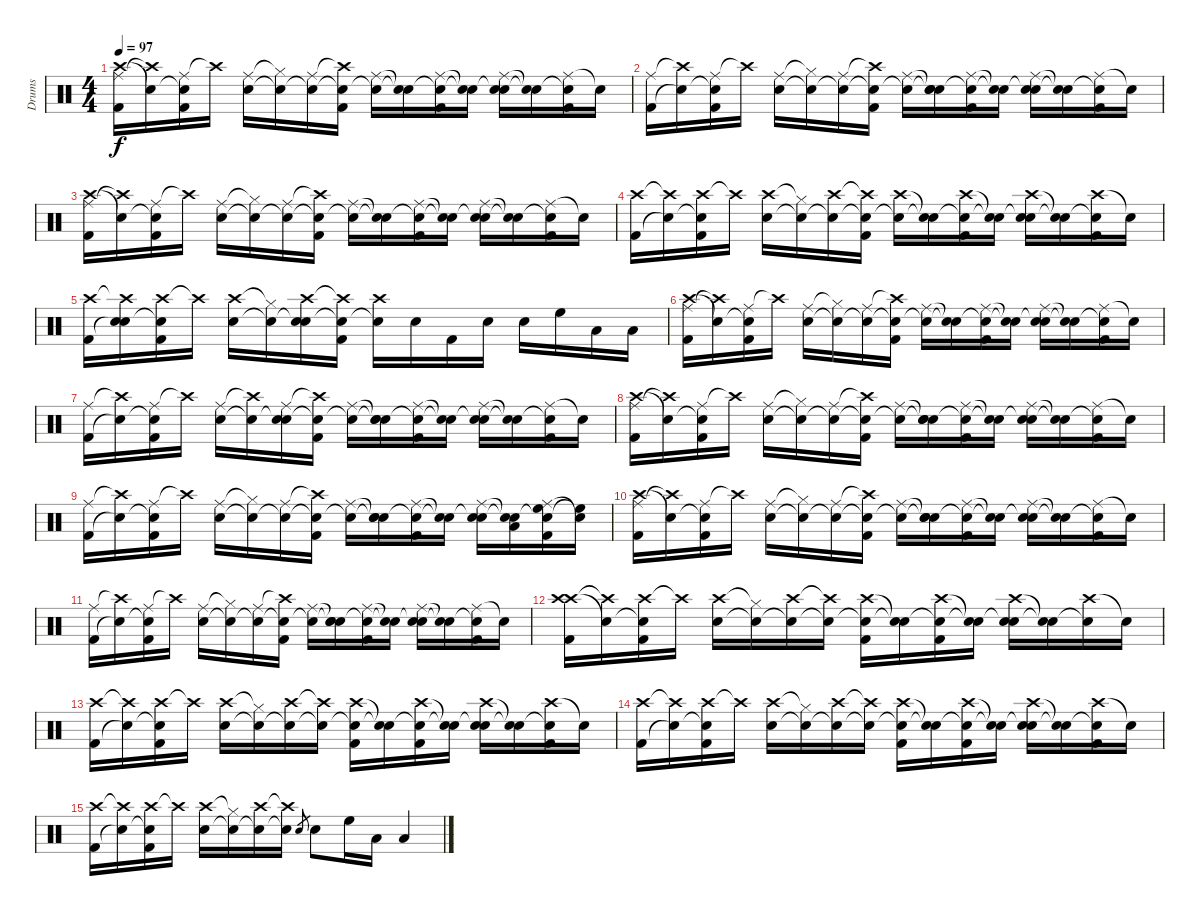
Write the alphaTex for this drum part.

\track ("Drums" "Drums") {instrument percussion}
\staff {score}
\articulation defaults
\ts (4 4)
\tempo 97
\clef neutral
\ks aminor
("Ride (middle)" "Crash high (hit)" "Kick (hit) 2").16{dy f} ("Crash high (hit)"{t} "Snare (hit)"{t}).16 ("Ride (middle)" "Snare (hit)"{t} "Kick (hit) 2").16 "Crash high (hit)"{t}.16 ("Ride (middle)" "Snare (hit) 2").16 ("Hi-Hat (closed)"{t} "Snare (hit)"{t}).16 ("Ride (middle)" "Snare (hit)"{t}).16 ("Crash high (hit)"{t} "Snare (hit)"{t} "Kick (hit) 2").16 ("Ride (middle)" "Snare (hit)"{t}).16 ("Snare (hit)"{t} "Snare (hit)"{t}).16 ("Ride (middle)" "Snare (hit)"{t} "Kick (hit) 2").16 ("Snare (hit)"{t} "Snare (hit)"{t}).16 ("Ride (middle)" "Snare (hit)"{t} "Snare (hit) 2").16 ("Snare (hit)"{t} "Snare (hit)"{t}).16 ("Ride (middle)" "Snare (hit)"{t} "Kick (hit) 2").16 "Snare (hit)"{t}.16 |
("Ride (middle)" "Kick (hit) 2").16 ("Crash high (hit)"{t} "Snare (hit)"{t}).16 ("Ride (middle)" "Snare (hit)"{t} "Kick (hit) 2").16 "Crash high (hit)"{t}.16 ("Ride (middle)" "Snare (hit) 2").16 ("Hi-Hat (closed)"{t} "Snare (hit)"{t}).16 ("Ride (middle)" "Snare (hit)"{t}).16 ("Crash high (hit)"{t} "Snare (hit)"{t} "Kick (hit) 2").16 ("Ride (middle)" "Snare (hit)"{t}).16 ("Snare (hit)"{t} "Snare (hit)"{t} "Snare (hit) 2").16 ("Ride (middle)" "Snare (hit)"{t} "Kick (hit) 2").16 ("Snare (hit)"{t} "Snare (hit)"{t}).16 ("Ride (middle)" "Snare (hit)"{t} "Snare (hit) 2").16 ("Snare (hit)"{t} "Snare (hit)"{t}).16 ("Ride (middle)" "Snare (hit)"{t} "Kick (hit) 2").16 "Snare (hit)"{t}.16 |
("Ride (middle)" "Crash high (hit)" "Kick (hit) 2").16 ("Crash high (hit)"{t} "Snare (hit)"{t}).16 ("Ride (middle)" "Snare (hit)"{t} "Kick (hit) 2").16 "Crash high (hit)"{t}.16 ("Ride (middle)" "Snare (hit) 2").16 ("Hi-Hat (closed)"{t} "Snare (hit)"{t}).16 ("Ride (middle)" "Snare (hit)"{t}).16 ("Crash high (hit)"{t} "Snare (hit)"{t} "Kick (hit) 2").16 ("Ride (middle)" "Snare (hit)"{t}).16 ("Snare (hit)"{t} "Snare (hit)"{t}).16 ("Ride (middle)" "Snare (hit)"{t} "Kick (hit) 2").16 ("Snare (hit)"{t} "Snare (hit)"{t}).16 ("Ride (middle)" "Snare (hit)"{t} "Snare (hit) 2").16 ("Snare (hit)"{t} "Snare (hit)"{t}).16 ("Ride (middle)" "Snare (hit)"{t} "Kick (hit) 2").16 "Snare (hit)"{t}.16 |
("Crash high (hit)" "Kick (hit) 2").16 ("Crash high (hit)"{t} "Snare (hit)"{t}).16 ("Crash high (hit)" "Snare (hit)"{t} "Kick (hit) 2").16 "Crash high (hit)"{t}.16 ("Crash high (hit)" "Snare (hit) 2").16 ("Hi-Hat (closed)"{t} "Snare (hit)"{t}).16 ("Crash high (hit)" "Snare (hit)"{t}).16 ("Crash high (hit)"{t} "Snare (hit)"{t} "Kick (hit) 2").16 ("Crash high (hit)" "Snare (hit)"{t}).16 ("Snare (hit)"{t} "Snare (hit)"{t}).16 ("Crash high (hit)" "Snare (hit)"{t} "Kick (hit) 2").16 ("Snare (hit)"{t} "Snare (hit)"{t}).16 ("Crash high (hit)" "Snare (hit)"{t} "Snare (hit) 2").16 ("Snare (hit)"{t} "Snare (hit)"{t}).16 ("Crash high (hit)" "Snare (hit)"{t} "Kick (hit) 2").16 "Snare (hit)"{t}.16 |
("Crash high (hit)" "Kick (hit) 2").16 ("Crash high (hit)"{t} "Snare (hit)"{t} "Snare (hit) 2").16 ("Crash high (hit)" "Snare (hit)"{t} "Kick (hit) 2").16 "Crash high (hit)"{t}.16 ("Crash high (hit)" "Snare (hit) 2").16 ("Hi-Hat (closed)"{t} "Snare (hit)"{t}).16 ("Crash high (hit)" "Snare (hit)"{t} "Snare (hit) 2").16 ("Crash high (hit)"{t} "Snare (hit)"{t} "Kick (hit) 2").16 ("Crash high (hit)" "Snare (hit)"{t}).16 "Snare (hit) 2".16 "Kick (hit) 2".16 "Snare (hit) 2".16 "Snare (hit) 2".16 "High Floor Tom (hit)".16 "Low Floor Tom (hit)".16 "Low Floor Tom (hit)".16 |
("Ride (middle)" "Crash high (hit)" "Kick (hit) 2").16 ("Crash high (hit)"{t} "Snare (hit)"{t}).16 ("Ride (middle)" "Snare (hit)"{t} "Kick (hit) 2").16 "Crash high (hit)"{t}.16 ("Ride (middle)" "Snare (hit) 2").16 ("Hi-Hat (closed)"{t} "Snare (hit)"{t}).16 ("Ride (middle)" "Snare (hit)"{t}).16 ("Crash high (hit)"{t} "Snare (hit)"{t} "Kick (hit) 2").16 ("Ride (middle)" "Snare (hit)"{t}).16 ("Snare (hit)"{t} "Snare (hit)"{t}).16 ("Ride (middle)" "Snare (hit)"{t} "Kick (hit) 2").16 ("Snare (hit)"{t} "Snare (hit)"{t}).16 ("Ride (middle)" "Snare (hit)"{t} "Snare (hit) 2").16 ("Snare (hit)"{t} "Snare (hit)"{t}).16 ("Ride (middle)" "Snare (hit)"{t} "Kick (hit) 2").16 "Snare (hit)"{t}.16 |
("Ride (middle)" "Kick (hit) 2").16 ("Crash high (hit)"{t} "Snare (hit)"{t}).16 ("Ride (middle)" "Snare (hit)"{t} "Kick (hit) 2").16 "Crash high (hit)"{t}.16 ("Ride (middle)" "Snare (hit) 2").16 ("Crash high (hit)"{t} "Snare (hit)"{t}).16 ("Ride (middle)" "Snare (hit)"{t} "Snare (hit) 2").16 ("Crash high (hit)"{t} "Snare (hit)"{t} "Kick (hit) 2").16 ("Ride (middle)" "Snare (hit)"{t}).16 ("Snare (hit)"{t} "Snare (hit)"{t} "Snare (hit) 2").16 ("Ride (middle)" "Snare (hit)"{t} "Kick (hit) 2").16 ("Snare (hit)"{t} "Snare (hit)"{t}).16 ("Ride (middle)" "Snare (hit)"{t} "Snare (hit) 2").16 ("Snare (hit)"{t} "Snare (hit)"{t}).16 ("Ride (middle)" "Snare (hit)"{t} "Kick (hit) 2").16 "Snare (hit)"{t}.16 |
("Ride (middle)" "Crash high (hit)" "Kick (hit) 2").16 ("Crash high (hit)"{t} "Snare (hit)"{t}).16 ("Ride (middle)" "Snare (hit)"{t} "Kick (hit) 2").16 "Crash high (hit)"{t}.16 ("Ride (middle)" "Snare (hit) 2").16 ("Hi-Hat (closed)"{t} "Snare (hit)"{t}).16 ("Ride (middle)" "Snare (hit)"{t}).16 ("Crash high (hit)"{t} "Snare (hit)"{t} "Kick (hit) 2").16 ("Ride (middle)" "Snare (hit)"{t}).16 ("Snare (hit)"{t} "Snare (hit)"{t} "Snare (hit) 2").16 ("Ride (middle)" "Snare (hit)"{t} "Kick (hit) 2").16 ("Snare (hit)"{t} "Snare (hit)"{t}).16 ("Ride (middle)" "Snare (hit)"{t} "Snare (hit) 2").16 ("Snare (hit)"{t} "Snare (hit)"{t}).16 ("Ride (middle)" "Snare (hit)"{t} "Kick (hit) 2").16 "Snare (hit)"{t}.16 |
("Ride (middle)" "Kick (hit) 2").16 ("Crash high (hit)"{t} "Snare (hit)"{t}).16 ("Ride (middle)" "Snare (hit)"{t} "Kick (hit) 2").16 "Crash high (hit)"{t}.16 ("Ride (middle)" "Snare (hit) 2").16 ("Hi-Hat (closed)"{t} "Snare (hit)"{t}).16 ("Ride (middle)" "Snare (hit)"{t}).16 ("Crash high (hit)"{t} "Snare (hit)"{t} "Kick (hit) 2").16 ("Ride (middle)" "Snare (hit)"{t}).16 ("Snare (hit)"{t} "Snare (hit)"{t} "Snare (hit) 2").16 ("Ride (middle)" "Snare (hit)"{t} "Kick (hit) 2").16 ("Snare (hit)"{t} "Snare (hit)"{t}).16 ("Ride (middle)" "Snare (hit)"{t} "Snare (hit) 2").16 ("Snare (hit)"{t} "Snare (hit)"{t} "Low Floor Tom (hit)").16 ("Ride (middle)" "Snare (hit)"{t} "High Floor Tom (hit)" "Kick (hit) 2").16 ("Snare (hit)"{t} "High Floor Tom (hit)"{t}).16 |
("Ride (middle)" "Crash high (hit)" "Kick (hit) 2").16 ("Crash high (hit)"{t} "Snare (hit)"{t}).16 ("Ride (middle)" "Snare (hit)"{t} "Kick (hit) 2").16 "Crash high (hit)"{t}.16 ("Ride (middle)" "Snare (hit) 2").16 ("Hi-Hat (closed)"{t} "Snare (hit)"{t}).16 ("Ride (middle)" "Snare (hit)"{t}).16 ("Crash high (hit)"{t} "Snare (hit)"{t} "Kick (hit) 2").16 ("Ride (middle)" "Snare (hit)"{t}).16 ("Snare (hit)"{t} "Snare (hit)"{t} "Snare (hit) 2").16 ("Ride (middle)" "Snare (hit)"{t} "Kick (hit) 2").16 ("Snare (hit)"{t} "Snare (hit)"{t}).16 ("Ride (middle)" "Snare (hit)"{t} "Snare (hit) 2").16 ("Snare (hit)"{t} "Snare (hit)"{t}).16 ("Ride (middle)" "Snare (hit)"{t} "Kick (hit) 2").16 "Snare (hit)"{t}.16 |
("Ride (middle)" "Kick (hit) 2").16 ("Crash high (hit)"{t} "Snare (hit)"{t}).16 ("Ride (middle)" "Snare (hit)"{t} "Kick (hit) 2").16 "Crash high (hit)"{t}.16 ("Ride (middle)" "Snare (hit) 2").16 ("Hi-Hat (closed)"{t} "Snare (hit)"{t}).16 ("Ride (middle)" "Snare (hit)"{t}).16 ("Crash high (hit)"{t} "Snare (hit)"{t} "Kick (hit) 2").16 ("Ride (middle)" "Snare (hit)"{t}).16 ("Snare (hit)"{t} "Snare (hit)"{t} "Snare (hit) 2").16 ("Ride (middle)" "Snare (hit)"{t} "Kick (hit) 2").16 ("Snare (hit)"{t} "Snare (hit)"{t}).16 ("Ride (middle)" "Snare (hit)"{t} "Snare (hit) 2").16 ("Snare (hit)"{t} "Snare (hit)"{t}).16 ("Ride (middle)" "Snare (hit)"{t} "Kick (hit) 2").16 "Snare (hit)"{t}.16 |
("Crash high (hit)" "Crash high (hit)" "Kick (hit) 2").16 ("Crash high (hit)"{t} "Snare (hit)"{t}).16 ("Crash high (hit)" "Snare (hit)"{t} "Kick (hit) 2").16 "Crash high (hit)"{t}.16 ("Crash high (hit)" "Snare (hit) 2").16 ("Hi-Hat (closed)"{t} "Snare (hit)"{t}).16 ("Crash high (hit)" "Snare (hit)"{t}).16 ("Crash high (hit)"{t} "Snare (hit)"{t}).16 ("Crash high (hit)" "Snare (hit)"{t} "Kick (hit) 2").16 ("Snare (hit)"{t} "Snare (hit)"{t}).16 ("Crash high (hit)" "Snare (hit)"{t} "Kick (hit) 2").16 ("Snare (hit)"{t} "Snare (hit)"{t}).16 ("Crash high (hit)" "Snare (hit)"{t} "Snare (hit) 2").16 ("Snare (hit)"{t} "Snare (hit)"{t}).16 ("Crash high (hit)" "Snare (hit)"{t}).16 "Snare (hit)"{t}.16 |
("Crash high (hit)" "Kick (hit) 2").16 ("Crash high (hit)"{t} "Snare (hit)"{t}).16 ("Crash high (hit)" "Snare (hit)"{t} "Kick (hit) 2").16 "Crash high (hit)"{t}.16 ("Crash high (hit)" "Snare (hit) 2").16 ("Hi-Hat (closed)"{t} "Snare (hit)"{t}).16 ("Crash high (hit)" "Snare (hit)"{t}).16 ("Crash high (hit)"{t} "Snare (hit)"{t}).16 ("Crash high (hit)" "Snare (hit)"{t} "Kick (hit) 2").16 ("Snare (hit)"{t} "Snare (hit)"{t}).16 ("Crash high (hit)" "Snare (hit)"{t} "Kick (hit) 2").16 ("Snare (hit)"{t} "Snare (hit)"{t}).16 ("Crash high (hit)" "Snare (hit)"{t} "Snare (hit) 2").16 ("Snare (hit)"{t} "Snare (hit)"{t}).16 ("Crash high (hit)" "Snare (hit)"{t} "Kick (hit) 2").16 "Snare (hit)"{t}.16 |
("Crash high (hit)" "Kick (hit) 2").16 ("Crash high (hit)"{t} "Snare (hit)"{t}).16 ("Crash high (hit)" "Snare (hit)"{t} "Kick (hit) 2").16 "Crash high (hit)"{t}.16 ("Crash high (hit)" "Snare (hit) 2").16 ("Hi-Hat (closed)"{t} "Snare (hit)"{t}).16 ("Crash high (hit)" "Snare (hit)"{t}).16 ("Crash high (hit)"{t} "Snare (hit)"{t}).16 ("Crash high (hit)" "Snare (hit)"{t} "Kick (hit) 2").16 ("Snare (hit)"{t} "Snare (hit)"{t}).16 ("Crash high (hit)" "Snare (hit)"{t} "Kick (hit) 2").16 ("Snare (hit)"{t} "Snare (hit)"{t}).16 ("Crash high (hit)" "Snare (hit)"{t} "Snare (hit) 2").16 ("Snare (hit)"{t} "Snare (hit)"{t}).16 ("Crash high (hit)" "Snare (hit)"{t} "Kick (hit) 2").16 "Snare (hit)"{t}.16 |
("Crash high (hit)" "Kick (hit) 2").16 ("Crash high (hit)"{t} "Snare (hit)"{t}).16 ("Crash high (hit)" "Snare (hit)"{t} "Kick (hit) 2").16 "Crash high (hit)"{t}.16 ("Crash high (hit)" "Snare (hit) 2").16 ("Hi-Hat (closed)"{t} "Snare (hit)"{t}).16 ("Crash high (hit)" "Snare (hit)"{t}).16 ("Crash high (hit)"{t} "Snare (hit)"{t}).16 "Snare (hit) 2".8{gr} "Snare (hit) 2".8 "High Floor Tom (hit)".16 "Low Tom (hit)".16 "Low Floor Tom (hit)".4
